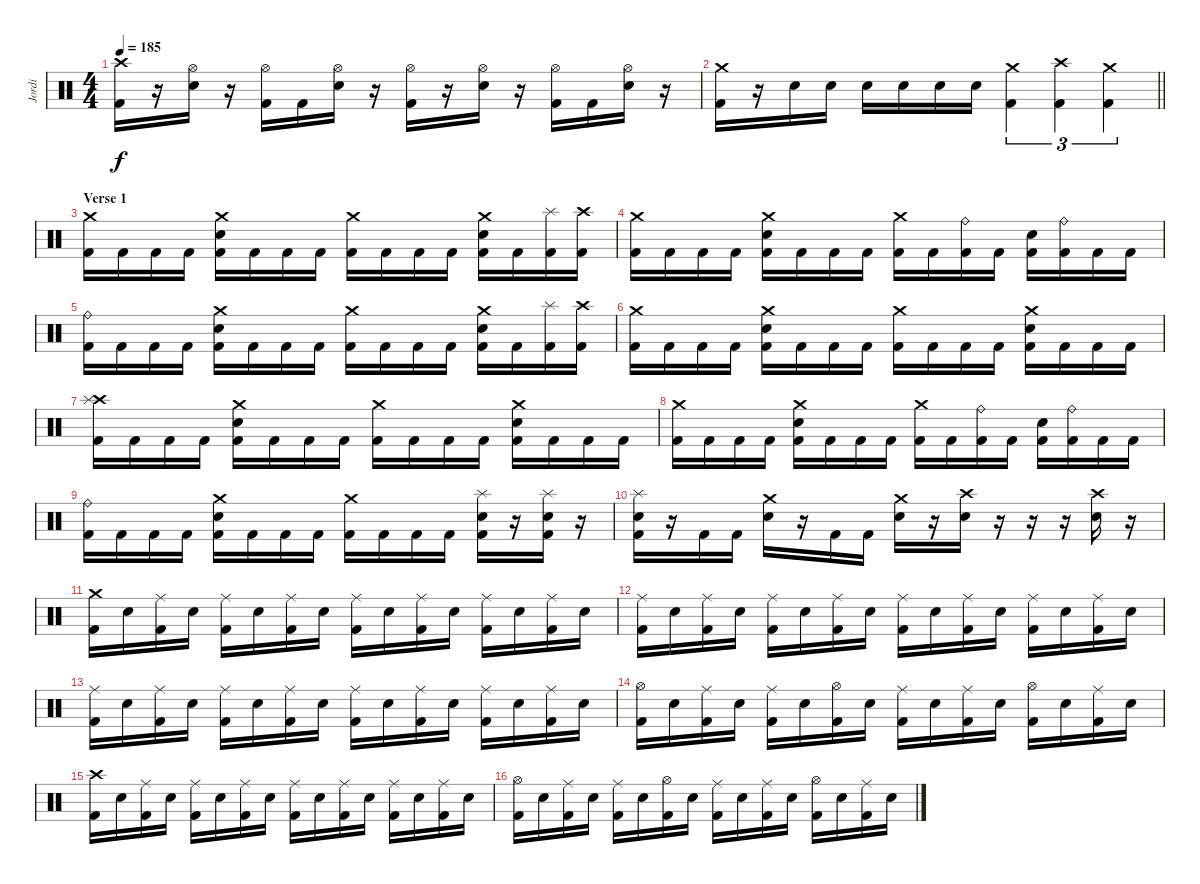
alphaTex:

\track ("Jordi" "Jordi") {instrument percussion}
\staff {score}
\articulation defaults
\ts (4 4)
\tempo 185
\clef neutral
\ks c
("Crash high (hit)" "Kick (hit) 2").16{dy f} r.16 ("Hi-Hat (open)" "Snare (hit) 2").16 r.16 ("Hi-Hat (open)" "Kick (hit) 2").16 "Kick (hit) 2".16 ("Hi-Hat (open)" "Snare (hit) 2").16 r.16 ("Hi-Hat (open)" "Kick (hit) 2").16 r.16 ("Hi-Hat (open)" "Snare (hit) 2").16 r.16 ("Hi-Hat (open)" "Kick (hit) 2").16 "Kick (hit) 2".16 ("Hi-Hat (open)" "Snare (hit) 2").16 r.16 |
\barLineRight lightlight
("Crash medium (hit)" "Kick (hit) 2").16 r.16 "Snare (hit) 2".16 "Snare (hit) 2".16 "Snare (hit) 2".16 "Snare (hit) 2".16 "Snare (hit) 2".16 "Snare (hit) 2".16 ("Crash medium (hit)" "Kick (hit) 2").4{tu (3 2)} ("Crash high (hit)" "Kick (hit) 2").4{tu (3 2)} ("Crash medium (hit)" "Kick (hit) 2").4{tu (3 2)} |
\section ("" "Verse 1")
("Crash medium (hit)" "Kick (hit) 2").16 "Kick (hit) 2".16 "Kick (hit) 2".16 "Kick (hit) 2".16 ("Crash medium (hit)" "Snare (hit) 2" "Kick (hit) 2").16 "Kick (hit) 2".16 "Kick (hit) 2".16 "Kick (hit) 2".16 ("Crash medium (hit)" "Kick (hit) 2").16 "Kick (hit) 2".16 "Kick (hit) 2".16 "Kick (hit) 2".16 ("Crash medium (hit)" "Snare (hit) 2" "Kick (hit) 2").16 "Kick (hit) 2".16 ("Splash (hit)" "Kick (hit) 2").16 ("Crash high (hit)" "Kick (hit) 2").16 |
("Crash medium (hit)" "Kick (hit) 2").16 "Kick (hit) 2".16 "Kick (hit) 2".16 "Kick (hit) 2".16 ("Crash medium (hit)" "Snare (hit) 2" "Kick (hit) 2").16 "Kick (hit) 2".16 "Kick (hit) 2".16 "Kick (hit) 2".16 ("Crash medium (hit)" "Kick (hit) 2").16 "Kick (hit) 2".16 ("Ride (bell)" "Kick (hit) 2").16 "Kick (hit) 2".16 ("Snare (hit) 2" "Kick (hit) 2").16 ("Ride (bell)" "Kick (hit) 2").16 "Kick (hit) 2".16 "Kick (hit) 2".16 |
("Ride (bell)" "Kick (hit) 2").16 "Kick (hit) 2".16 "Kick (hit) 2".16 "Kick (hit) 2".16 ("Crash medium (hit)" "Snare (hit) 2" "Kick (hit) 2").16 "Kick (hit) 2".16 "Kick (hit) 2".16 "Kick (hit) 2".16 ("Crash medium (hit)" "Kick (hit) 2").16 "Kick (hit) 2".16 "Kick (hit) 2".16 "Kick (hit) 2".16 ("Crash medium (hit)" "Snare (hit) 2" "Kick (hit) 2").16 "Kick (hit) 2".16 ("Splash (hit)" "Kick (hit) 2").16 ("Crash high (hit)" "Kick (hit) 2").16 |
("Crash medium (hit)" "Kick (hit) 2").16 "Kick (hit) 2".16 "Kick (hit) 2".16 "Kick (hit) 2".16 ("Crash medium (hit)" "Snare (hit) 2" "Kick (hit) 2").16 "Kick (hit) 2".16 "Kick (hit) 2".16 "Kick (hit) 2".16 ("Crash medium (hit)" "Kick (hit) 2").16 "Kick (hit) 2".16 "Kick (hit) 2".16 "Kick (hit) 2".16 ("Crash medium (hit)" "Snare (hit) 2" "Kick (hit) 2").16 "Kick (hit) 2".16 "Kick (hit) 2".16 "Kick (hit) 2".16 |
("Crash high (hit)" "Splash (hit)" "Kick (hit) 2").16 "Kick (hit) 2".16 "Kick (hit) 2".16 "Kick (hit) 2".16 ("Crash medium (hit)" "Snare (hit) 2" "Kick (hit) 2").16 "Kick (hit) 2".16 "Kick (hit) 2".16 "Kick (hit) 2".16 ("Crash medium (hit)" "Kick (hit) 2").16 "Kick (hit) 2".16 "Kick (hit) 2".16 "Kick (hit) 2".16 ("Crash medium (hit)" "Snare (hit) 2" "Kick (hit) 2").16 "Kick (hit) 2".16 "Kick (hit) 2".16 "Kick (hit) 2".16 |
("Crash medium (hit)" "Kick (hit) 2").16 "Kick (hit) 2".16 "Kick (hit) 2".16 "Kick (hit) 2".16 ("Crash medium (hit)" "Snare (hit) 2" "Kick (hit) 2").16 "Kick (hit) 2".16 "Kick (hit) 2".16 "Kick (hit) 2".16 ("Crash medium (hit)" "Kick (hit) 2").16 "Kick (hit) 2".16 ("Ride (bell)" "Kick (hit) 2").16 "Kick (hit) 2".16 ("Snare (hit) 2" "Kick (hit) 2").16 ("Ride (bell)" "Kick (hit) 2").16 "Kick (hit) 2".16 "Kick (hit) 2".16 |
("Ride (bell)" "Kick (hit) 2").16 "Kick (hit) 2".16 "Kick (hit) 2".16 "Kick (hit) 2".16 ("Crash medium (hit)" "Snare (hit) 2" "Kick (hit) 2").16 "Kick (hit) 2".16 "Kick (hit) 2".16 "Kick (hit) 2".16 ("Crash medium (hit)" "Kick (hit) 2").16 "Kick (hit) 2".16 "Kick (hit) 2".16 "Kick (hit) 2".16 ("Splash (hit)" "Snare (hit) 2" "Kick (hit) 2").16 r.16 ("Splash (hit)" "Snare (hit) 2" "Kick (hit) 2").16 r.16 |
("Splash (hit)" "Snare (hit) 2" "Kick (hit) 2").16 r.16 "Kick (hit) 2".16 "Kick (hit) 2".16 ("Crash medium (hit)" "Snare (hit) 2").16 r.16 "Kick (hit) 2".16 "Kick (hit) 2".16 ("Crash medium (hit)" "Snare (hit) 2").16 r.16 ("Crash high (hit)" "Snare (hit) 2").16 r.16 r.16 r.16 ("Crash high (hit)" "Snare (hit) 2").16 r.16 |
("Crash medium (hit)" "Kick (hit) 2").16 "Snare (hit) 2".16 ("Ride (middle)" "Kick (hit) 2").16 "Snare (hit) 2".16 ("Ride (middle)" "Kick (hit) 2").16 "Snare (hit) 2".16 ("Ride (middle)" "Kick (hit) 2").16 "Snare (hit) 2".16 ("Ride (middle)" "Kick (hit) 2").16 "Snare (hit) 2".16 ("Ride (middle)" "Kick (hit) 2").16 "Snare (hit) 2".16 ("Ride (middle)" "Kick (hit) 2").16 "Snare (hit) 2".16 ("Ride (middle)" "Kick (hit) 2").16 "Snare (hit) 2".16 |
("Ride (middle)" "Kick (hit) 2").16 "Snare (hit) 2".16 ("Ride (middle)" "Kick (hit) 2").16 "Snare (hit) 2".16 ("Ride (middle)" "Kick (hit) 2").16 "Snare (hit) 2".16 ("Ride (middle)" "Kick (hit) 2").16 "Snare (hit) 2".16 ("Ride (middle)" "Kick (hit) 2").16 "Snare (hit) 2".16 ("Ride (middle)" "Kick (hit) 2").16 "Snare (hit) 2".16 ("Ride (middle)" "Kick (hit) 2").16 "Snare (hit) 2".16 ("Ride (middle)" "Kick (hit) 2").16 "Snare (hit) 2".16 |
("Ride (middle)" "Kick (hit) 2").16 "Snare (hit) 2".16 ("Ride (middle)" "Kick (hit) 2").16 "Snare (hit) 2".16 ("Ride (middle)" "Kick (hit) 2").16 "Snare (hit) 2".16 ("Ride (middle)" "Kick (hit) 2").16 "Snare (hit) 2".16 ("Ride (middle)" "Kick (hit) 2").16 "Snare (hit) 2".16 ("Ride (middle)" "Kick (hit) 2").16 "Snare (hit) 2".16 ("Ride (middle)" "Kick (hit) 2").16 "Snare (hit) 2".16 ("Ride (middle)" "Kick (hit) 2").16 "Snare (hit) 2".16 |
("Hi-Hat (open)" "Kick (hit) 2").16 "Snare (hit) 2".16 ("Ride (middle)" "Kick (hit) 2").16 "Snare (hit) 2".16 ("Ride (middle)" "Kick (hit) 2").16 "Snare (hit) 2".16 ("Hi-Hat (open)" "Kick (hit) 2").16 "Snare (hit) 2".16 ("Ride (middle)" "Kick (hit) 2").16 "Snare (hit) 2".16 ("Ride (middle)" "Kick (hit) 2").16 "Snare (hit) 2".16 ("Hi-Hat (open)" "Kick (hit) 2").16 "Snare (hit) 2".16 ("Ride (middle)" "Kick (hit) 2").16 "Snare (hit) 2".16 |
("Crash high (hit)" "Kick (hit) 2").16 "Snare (hit) 2".16 ("Ride (middle)" "Kick (hit) 2").16 "Snare (hit) 2".16 ("Ride (middle)" "Kick (hit) 2").16 "Snare (hit) 2".16 ("Ride (middle)" "Kick (hit) 2").16 "Snare (hit) 2".16 ("Ride (middle)" "Kick (hit) 2").16 "Snare (hit) 2".16 ("Ride (middle)" "Kick (hit) 2").16 "Snare (hit) 2".16 ("Ride (middle)" "Kick (hit) 2").16 "Snare (hit) 2".16 ("Ride (middle)" "Kick (hit) 2").16 "Snare (hit) 2".16 |
("Hi-Hat (open)" "Kick (hit) 2").16 "Snare (hit) 2".16 ("Ride (middle)" "Kick (hit) 2").16 "Snare (hit) 2".16 ("Ride (middle)" "Kick (hit) 2").16 "Snare (hit) 2".16 ("Hi-Hat (open)" "Kick (hit) 2").16 "Snare (hit) 2".16 ("Ride (middle)" "Kick (hit) 2").16 "Snare (hit) 2".16 ("Ride (middle)" "Kick (hit) 2").16 "Snare (hit) 2".16 ("Hi-Hat (open)" "Kick (hit) 2").16 "Snare (hit) 2".16 ("Ride (middle)" "Kick (hit) 2").16 "Snare (hit) 2".16
